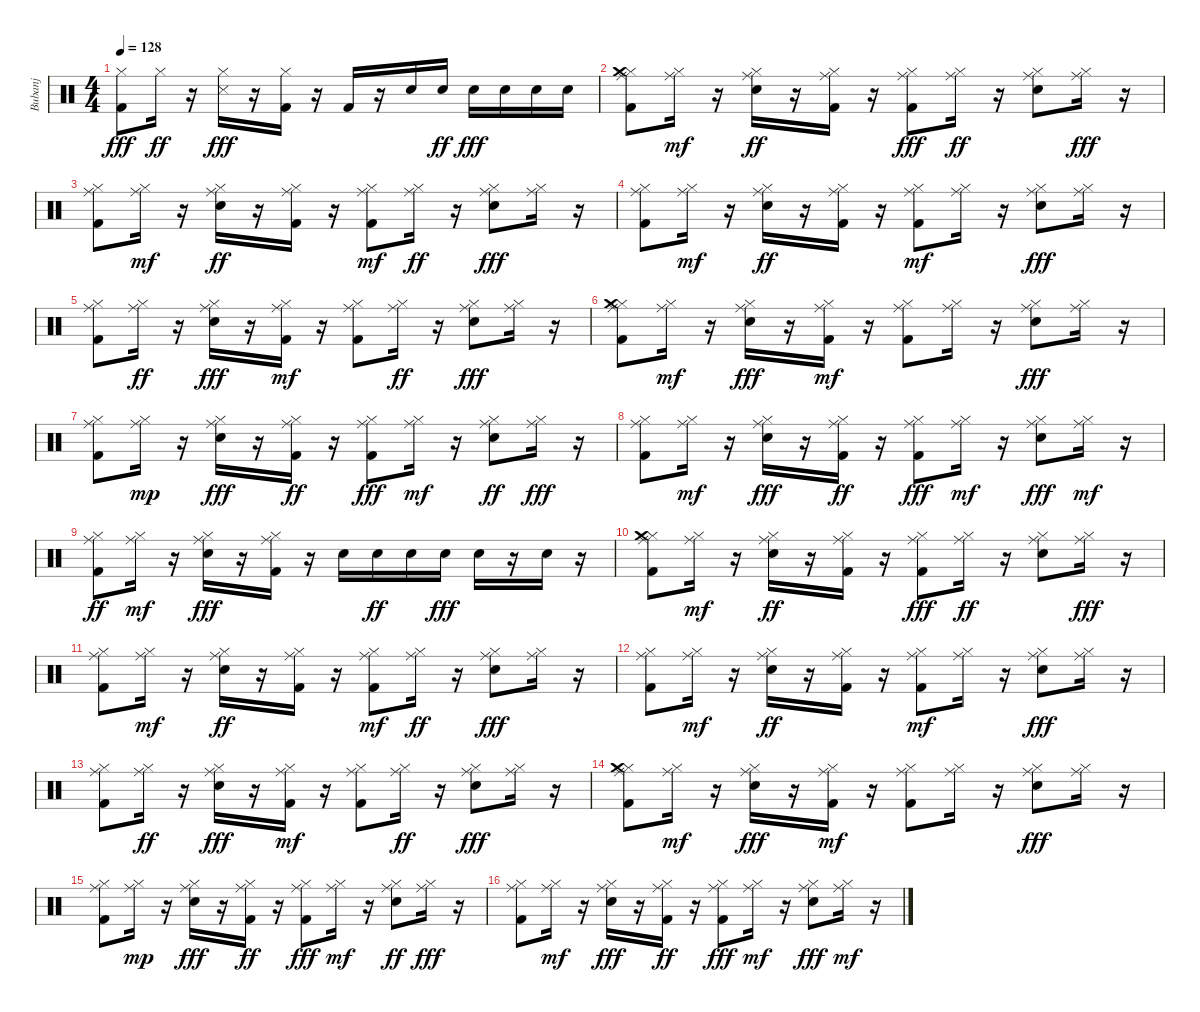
\track ("Bubanj" "Bubanj") {instrument percussion}
\staff {score}
\articulation defaults
\ts (4 4)
\tempo 128
\clef neutral
\ks c
("Kick (hit) 2" "Hi-Hat (closed)").8{dy fff} "Hi-Hat (closed)".16{dy ff} r.16 ("Hi-Hat (closed)" "Snare (side stick) 3").16{dy fff} r.16 ("Hi-Hat (closed)" "Kick (hit) 2").16 r.16 "Kick (hit) 2".16 r.16 "Electric Snare (hit)".16 "Electric Snare (hit)".16{dy ff} "Electric Snare (hit)".16{dy fff} "Electric Snare (hit)".16 "Electric Snare (hit)".16 "Electric Snare (hit)".16 |
("Hi-Hat (closed)" "Kick (hit) 2" "Crash medium (hit)" "Ride (middle)").8 ("Hi-Hat (closed)" "Ride (middle)").16{dy mf} r.16 ("Hi-Hat (closed)" "Electric Snare (hit)" "Ride (middle)").16{dy ff} r.16 ("Kick (hit) 2" "Hi-Hat (closed)" "Ride (middle)").16 r.16 ("Hi-Hat (closed)" "Kick (hit) 2" "Ride (middle)").8{dy fff} ("Hi-Hat (closed)" "Ride (middle)").16{dy ff} r.16 ("Hi-Hat (closed)" "Electric Snare (hit)" "Ride (middle)").8 ("Hi-Hat (closed)" "Ride (middle)").16{dy fff} r.16 |
("Hi-Hat (closed)" "Kick (hit) 2" "Ride (middle)").8 ("Hi-Hat (closed)" "Ride (middle)").16{dy mf} r.16 ("Hi-Hat (closed)" "Electric Snare (hit)" "Ride (middle)").16{dy ff} r.16 ("Kick (hit) 2" "Hi-Hat (closed)" "Ride (middle)").16 r.16 ("Hi-Hat (closed)" "Kick (hit) 2" "Ride (middle)").8{dy mf} ("Hi-Hat (closed)" "Ride (middle)").16{dy ff} r.16 ("Hi-Hat (closed)" "Electric Snare (hit)" "Ride (middle)").8{dy fff} ("Hi-Hat (closed)" "Ride (middle)").16 r.16 |
("Hi-Hat (closed)" "Kick (hit) 2" "Ride (middle)").8 ("Hi-Hat (closed)" "Ride (middle)").16{dy mf} r.16 ("Hi-Hat (closed)" "Electric Snare (hit)" "Ride (middle)").16{dy ff} r.16 ("Kick (hit) 2" "Hi-Hat (closed)" "Ride (middle)").16 r.16 ("Hi-Hat (closed)" "Kick (hit) 2" "Ride (middle)").8{dy mf} ("Hi-Hat (closed)" "Ride (middle)").16 r.16 ("Hi-Hat (closed)" "Electric Snare (hit)" "Ride (middle)").8{dy fff} ("Hi-Hat (closed)" "Ride (middle)").16 r.16 |
("Hi-Hat (closed)" "Kick (hit) 2" "Ride (middle)").8 ("Hi-Hat (closed)" "Ride (middle)").16{dy ff} r.16 ("Hi-Hat (closed)" "Electric Snare (hit)" "Ride (middle)").16{dy fff} r.16 ("Kick (hit) 2" "Hi-Hat (closed)" "Ride (middle)").16{dy mf} r.16 ("Hi-Hat (closed)" "Kick (hit) 2" "Ride (middle)").8 ("Hi-Hat (closed)" "Ride (middle)").16{dy ff} r.16 ("Hi-Hat (closed)" "Electric Snare (hit)" "Ride (middle)").8{dy fff} ("Hi-Hat (closed)" "Ride (middle)").16 r.16 |
("Hi-Hat (closed)" "Kick (hit) 2" "Crash medium (hit)" "Ride (middle)").8 ("Hi-Hat (closed)" "Ride (middle)").16{dy mf} r.16 ("Hi-Hat (closed)" "Electric Snare (hit)" "Ride (middle)").16{dy fff} r.16 ("Kick (hit) 2" "Hi-Hat (closed)" "Ride (middle)").16{dy mf} r.16 ("Hi-Hat (closed)" "Kick (hit) 2" "Ride (middle)").8 ("Hi-Hat (closed)" "Ride (middle)").16 r.16 ("Hi-Hat (closed)" "Electric Snare (hit)" "Ride (middle)").8{dy fff} ("Hi-Hat (closed)" "Ride (middle)").16 r.16 |
("Hi-Hat (closed)" "Kick (hit) 2" "Ride (middle)").8 ("Hi-Hat (closed)" "Ride (middle)").16{dy mp} r.16 ("Hi-Hat (closed)" "Electric Snare (hit)" "Ride (middle)").16{dy fff} r.16 ("Kick (hit) 2" "Hi-Hat (closed)" "Ride (middle)").16{dy ff} r.16 ("Hi-Hat (closed)" "Kick (hit) 2" "Ride (middle)").8{dy fff} ("Hi-Hat (closed)" "Ride (middle)").16{dy mf} r.16 ("Hi-Hat (closed)" "Electric Snare (hit)" "Ride (middle)").8{dy ff} ("Hi-Hat (closed)" "Ride (middle)").16{dy fff} r.16 |
("Hi-Hat (closed)" "Kick (hit) 2" "Ride (middle)").8 ("Hi-Hat (closed)" "Ride (middle)").16{dy mf} r.16 ("Hi-Hat (closed)" "Electric Snare (hit)" "Ride (middle)").16{dy fff} r.16 ("Kick (hit) 2" "Hi-Hat (closed)" "Ride (middle)").16{dy ff} r.16 ("Hi-Hat (closed)" "Kick (hit) 2" "Ride (middle)").8{dy fff} ("Hi-Hat (closed)" "Ride (middle)").16{dy mf} r.16 ("Hi-Hat (closed)" "Electric Snare (hit)" "Ride (middle)").8{dy fff} ("Hi-Hat (closed)" "Ride (middle)").16{dy mf} r.16 |
("Kick (hit) 2" "Hi-Hat (closed)" "Ride (middle)").8{dy ff} ("Hi-Hat (closed)" "Ride (middle)").16{dy mf} r.16 ("Electric Snare (hit)" "Hi-Hat (closed)" "Ride (middle)").16{dy fff} r.16 ("Kick (hit) 2" "Hi-Hat (closed)" "Ride (middle)").16 r.16 "Electric Snare (hit)".16 "Electric Snare (hit)".16{dy ff} "Electric Snare (hit)".16 "Electric Snare (hit)".16{dy fff} "Electric Snare (hit)".16 r.16 "Electric Snare (hit)".16 r.16 |
("Hi-Hat (closed)" "Kick (hit) 2" "Crash medium (hit)" "Ride (middle)").8 ("Hi-Hat (closed)" "Ride (middle)").16{dy mf} r.16 ("Hi-Hat (closed)" "Electric Snare (hit)" "Ride (middle)").16{dy ff} r.16 ("Kick (hit) 2" "Hi-Hat (closed)" "Ride (middle)").16 r.16 ("Hi-Hat (closed)" "Kick (hit) 2" "Ride (middle)").8{dy fff} ("Hi-Hat (closed)" "Ride (middle)").16{dy ff} r.16 ("Hi-Hat (closed)" "Electric Snare (hit)" "Ride (middle)").8 ("Hi-Hat (closed)" "Ride (middle)").16{dy fff} r.16 |
("Hi-Hat (closed)" "Kick (hit) 2" "Ride (middle)").8 ("Hi-Hat (closed)" "Ride (middle)").16{dy mf} r.16 ("Hi-Hat (closed)" "Electric Snare (hit)" "Ride (middle)").16{dy ff} r.16 ("Kick (hit) 2" "Hi-Hat (closed)" "Ride (middle)").16 r.16 ("Hi-Hat (closed)" "Kick (hit) 2" "Ride (middle)").8{dy mf} ("Hi-Hat (closed)" "Ride (middle)").16{dy ff} r.16 ("Hi-Hat (closed)" "Electric Snare (hit)" "Ride (middle)").8{dy fff} ("Hi-Hat (closed)" "Ride (middle)").16 r.16 |
("Hi-Hat (closed)" "Kick (hit) 2" "Ride (middle)").8 ("Hi-Hat (closed)" "Ride (middle)").16{dy mf} r.16 ("Hi-Hat (closed)" "Electric Snare (hit)" "Ride (middle)").16{dy ff} r.16 ("Kick (hit) 2" "Hi-Hat (closed)" "Ride (middle)").16 r.16 ("Hi-Hat (closed)" "Kick (hit) 2" "Ride (middle)").8{dy mf} ("Hi-Hat (closed)" "Ride (middle)").16 r.16 ("Hi-Hat (closed)" "Electric Snare (hit)" "Ride (middle)").8{dy fff} ("Hi-Hat (closed)" "Ride (middle)").16 r.16 |
("Hi-Hat (closed)" "Kick (hit) 2" "Ride (middle)").8 ("Hi-Hat (closed)" "Ride (middle)").16{dy ff} r.16 ("Hi-Hat (closed)" "Electric Snare (hit)" "Ride (middle)").16{dy fff} r.16 ("Kick (hit) 2" "Hi-Hat (closed)" "Ride (middle)").16{dy mf} r.16 ("Hi-Hat (closed)" "Kick (hit) 2" "Ride (middle)").8 ("Hi-Hat (closed)" "Ride (middle)").16{dy ff} r.16 ("Hi-Hat (closed)" "Electric Snare (hit)" "Ride (middle)").8{dy fff} ("Hi-Hat (closed)" "Ride (middle)").16 r.16 |
("Hi-Hat (closed)" "Kick (hit) 2" "Crash medium (hit)" "Ride (middle)").8 ("Hi-Hat (closed)" "Ride (middle)").16{dy mf} r.16 ("Hi-Hat (closed)" "Electric Snare (hit)" "Ride (middle)").16{dy fff} r.16 ("Kick (hit) 2" "Hi-Hat (closed)" "Ride (middle)").16{dy mf} r.16 ("Hi-Hat (closed)" "Kick (hit) 2" "Ride (middle)").8 ("Hi-Hat (closed)" "Ride (middle)").16 r.16 ("Hi-Hat (closed)" "Electric Snare (hit)" "Ride (middle)").8{dy fff} ("Hi-Hat (closed)" "Ride (middle)").16 r.16 |
("Hi-Hat (closed)" "Kick (hit) 2" "Ride (middle)").8 ("Hi-Hat (closed)" "Ride (middle)").16{dy mp} r.16 ("Hi-Hat (closed)" "Electric Snare (hit)" "Ride (middle)").16{dy fff} r.16 ("Kick (hit) 2" "Hi-Hat (closed)" "Ride (middle)").16{dy ff} r.16 ("Hi-Hat (closed)" "Kick (hit) 2" "Ride (middle)").8{dy fff} ("Hi-Hat (closed)" "Ride (middle)").16{dy mf} r.16 ("Hi-Hat (closed)" "Electric Snare (hit)" "Ride (middle)").8{dy ff} ("Hi-Hat (closed)" "Ride (middle)").16{dy fff} r.16 |
("Hi-Hat (closed)" "Kick (hit) 2" "Ride (middle)").8 ("Hi-Hat (closed)" "Ride (middle)").16{dy mf} r.16 ("Hi-Hat (closed)" "Electric Snare (hit)" "Ride (middle)").16{dy fff} r.16 ("Kick (hit) 2" "Hi-Hat (closed)" "Ride (middle)").16{dy ff} r.16 ("Hi-Hat (closed)" "Kick (hit) 2" "Ride (middle)").8{dy fff} ("Hi-Hat (closed)" "Ride (middle)").16{dy mf} r.16 ("Hi-Hat (closed)" "Electric Snare (hit)" "Ride (middle)").8{dy fff} ("Hi-Hat (closed)" "Ride (middle)").16{dy mf} r.16
